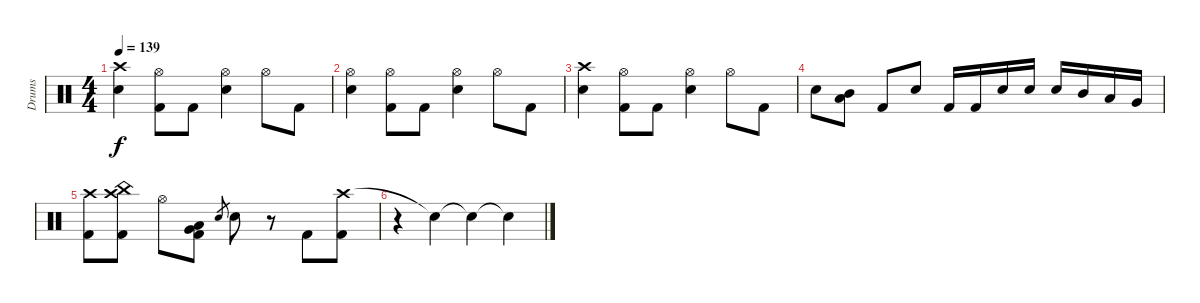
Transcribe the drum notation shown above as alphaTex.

\track ("Drums" "Drums") {instrument percussion}
\staff {score}
\articulation defaults
\ts (4 4)
\tempo 139
\clef neutral
\ks c
("Crash high (hit)" "Snare (hit) 2").4{dy f} ("Hi-Hat (open)" "Kick (hit) 2").8 "Kick (hit) 2".8 ("Hi-Hat (open)" "Snare (hit) 2").4 "Hi-Hat (open)".8 "Kick (hit) 2".8 |
("Hi-Hat (open)" "Snare (hit) 2").4 ("Hi-Hat (open)" "Kick (hit) 2").8 "Kick (hit) 2".8 ("Hi-Hat (open)" "Snare (hit) 2").4 "Hi-Hat (open)".8 "Kick (hit) 2".8 |
("Crash high (hit)" "Snare (hit) 2").4 ("Hi-Hat (open)" "Kick (hit) 2").8 "Kick (hit) 2".8 ("Hi-Hat (open)" "Snare (hit) 2").4 "Hi-Hat (open)".8 "Kick (hit) 2".8 |
"Snare (hit) 2".8 ("Mid Tom (hit)" "Low Tom (hit)").8 "Kick (hit) 2".8 "Snare (hit) 2".8 "Kick (hit) 2".16 "Kick (hit) 2".16 "Snare (hit) 2".16 "Snare (hit) 2".16 "Snare (hit) 2".16 "Mid Tom (hit)".16 "Low Tom (hit)".16 "Very Low Tom (hit)".16 |
("Crash high (hit)" "Kick (hit) 2").8 ("Crash high (hit)" "China (hit)" "Kick (hit) 2").8 "Hi-Hat (open)".8 ("Very Low Tom (hit)" "Low Floor Tom (hit)" "Kick (hit) 2").8 "Snare (hit) 2".8{gr} "Snare (hit) 2".8 r.8 "Kick (hit) 2".8 ("Crash high (hit)" "Kick (hit) 2").8 |
r.4 "Snare (hit)"{t}.4 "Snare (hit)"{t}.4 "Snare (hit)"{t}.4
